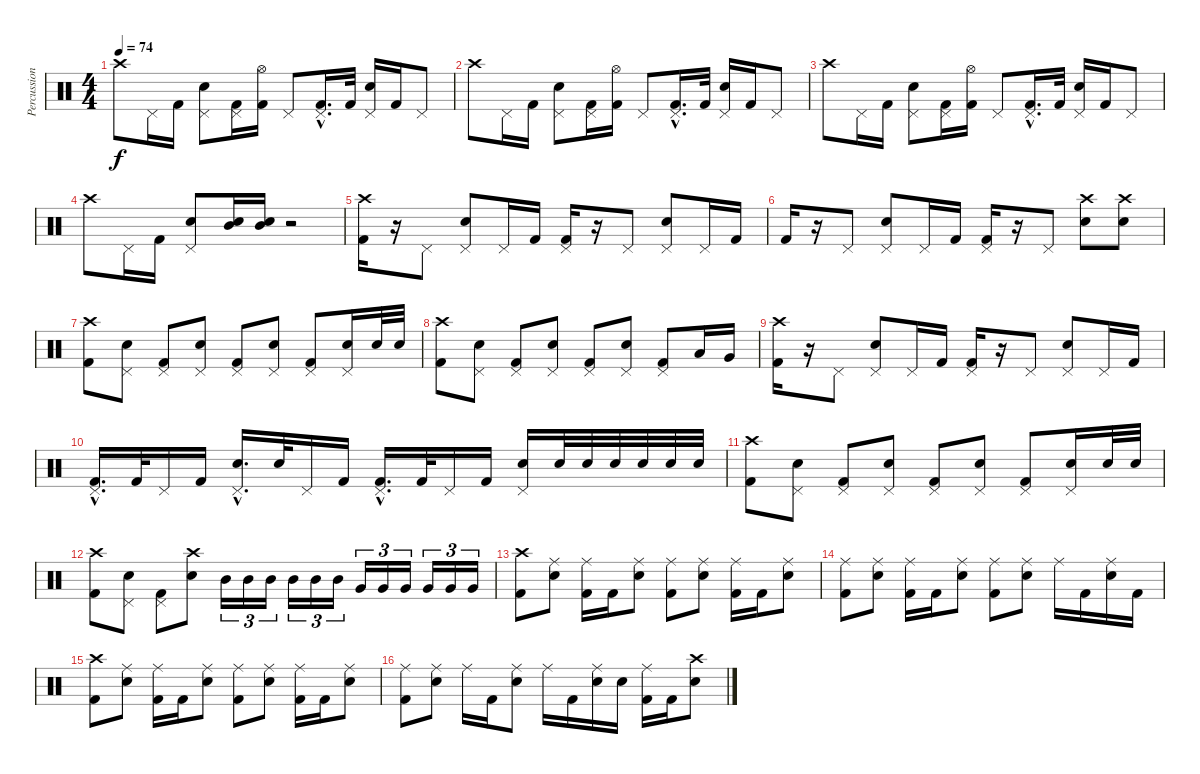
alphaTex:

\track ("Percussion" "Percussion") {instrument percussion}
\staff {score}
\articulation defaults
\ts (4 4)
\tempo 74
\clef neutral
\ks c "Crash high (hit)".8{dy f} "Pedal Hi-Hat (hit)".16 "Kick (hit) 2".16
("Pedal Hi-Hat (hit)" "Snare (hit) 2").8 ("Pedal Hi-Hat (hit)" "Kick (hit) 2").16 ("Hi-Hat (open)" "Kick (hit) 2").16 "Pedal Hi-Hat (hit)".8 ("Pedal Hi-Hat (hit)"{hac} "Kick (hit) 2"{hac}).16{d} "Kick (hit) 2".32 ("Pedal Hi-Hat (hit)" "Snare (hit) 2").16 "Kick (hit) 2".16 "Pedal Hi-Hat (hit)".8 |
"Crash high (hit)".8 "Pedal Hi-Hat (hit)".16 "Kick (hit) 2".16 ("Pedal Hi-Hat (hit)" "Snare (hit) 2").8 ("Pedal Hi-Hat (hit)" "Kick (hit) 2").16 ("Hi-Hat (open)" "Kick (hit) 2").16 "Pedal Hi-Hat (hit)".8 ("Pedal Hi-Hat (hit)"{hac} "Kick (hit) 2"{hac}).16{d} "Kick (hit) 2".32 ("Pedal Hi-Hat (hit)" "Snare (hit) 2").16 "Kick (hit) 2".16 "Pedal Hi-Hat (hit)".8 |
"Crash high (hit)".8 "Pedal Hi-Hat (hit)".16 "Kick (hit) 2".16 ("Pedal Hi-Hat (hit)" "Snare (hit) 2").8 ("Pedal Hi-Hat (hit)" "Kick (hit) 2").16 ("Hi-Hat (open)" "Kick (hit) 2").16 "Pedal Hi-Hat (hit)".8 ("Pedal Hi-Hat (hit)"{hac} "Kick (hit) 2"{hac}).16{d} "Kick (hit) 2".32 ("Pedal Hi-Hat (hit)" "Snare (hit) 2").16 "Kick (hit) 2".16 "Pedal Hi-Hat (hit)".8 |
"Crash high (hit)".8 "Pedal Hi-Hat (hit)".16 "Kick (hit) 2".16 ("Pedal Hi-Hat (hit)" "Snare (hit) 2").8 ("Mid Tom (hit)" "Snare (hit) 2").16 ("Mid Tom (hit)" "Snare (hit) 2").16 r.2 |
("Crash high (hit)" "Kick (hit) 2").16 r.16 "Pedal Hi-Hat (hit)".8 ("Pedal Hi-Hat (hit)" "Snare (hit) 2").8 "Pedal Hi-Hat (hit)".16 "Kick (hit) 2".16 ("Pedal Hi-Hat (hit)" "Kick (hit) 2").16 r.16 "Pedal Hi-Hat (hit)".8 ("Pedal Hi-Hat (hit)" "Snare (hit) 2").8 "Pedal Hi-Hat (hit)".16 "Kick (hit) 2".16 |
"Kick (hit) 2".16 r.16 "Pedal Hi-Hat (hit)".8 ("Pedal Hi-Hat (hit)" "Snare (hit) 2").8 "Pedal Hi-Hat (hit)".16 "Kick (hit) 2".16 ("Pedal Hi-Hat (hit)" "Kick (hit) 2").16 r.16 "Pedal Hi-Hat (hit)".8 ("Crash high (hit)" "Snare (hit) 2").8 ("Crash high (hit)" "Snare (hit) 2").8 |
("Crash high (hit)" "Kick (hit) 2").8 ("Pedal Hi-Hat (hit)" "Snare (hit) 2").8 ("Pedal Hi-Hat (hit)" "Kick (hit) 2").8 ("Pedal Hi-Hat (hit)" "Snare (hit) 2").8 ("Pedal Hi-Hat (hit)" "Kick (hit) 2").8 ("Pedal Hi-Hat (hit)" "Snare (hit) 2").8 ("Pedal Hi-Hat (hit)" "Kick (hit) 2").8 ("Pedal Hi-Hat (hit)" "Snare (hit) 2").16 "Snare (hit) 2".32 "Snare (hit) 2".32 |
("Crash high (hit)" "Kick (hit) 2").8 ("Pedal Hi-Hat (hit)" "Snare (hit) 2").8 ("Pedal Hi-Hat (hit)" "Kick (hit) 2").8 ("Pedal Hi-Hat (hit)" "Snare (hit) 2").8 ("Pedal Hi-Hat (hit)" "Kick (hit) 2").8 ("Pedal Hi-Hat (hit)" "Snare (hit) 2").8 ("Pedal Hi-Hat (hit)" "Kick (hit) 2").8 "Low Tom (hit)".16 "Very Low Tom (hit)".16 |
("Crash high (hit)" "Kick (hit) 2").16 r.16 "Pedal Hi-Hat (hit)".8 ("Pedal Hi-Hat (hit)" "Snare (hit) 2").8 "Pedal Hi-Hat (hit)".16 "Kick (hit) 2".16 ("Pedal Hi-Hat (hit)" "Kick (hit) 2").16 r.16 "Pedal Hi-Hat (hit)".8 ("Pedal Hi-Hat (hit)" "Snare (hit) 2").8 "Pedal Hi-Hat (hit)".16 "Kick (hit) 2".16 |
("Pedal Hi-Hat (hit)"{hac} "Kick (hit) 2"{hac}).16{d} "Kick (hit) 2".32 "Pedal Hi-Hat (hit)".16 "Kick (hit) 2".16 ("Pedal Hi-Hat (hit)"{hac} "Snare (hit) 2"{hac}).16{d} "Snare (hit) 2".32 "Pedal Hi-Hat (hit)".16 "Kick (hit) 2".16 ("Pedal Hi-Hat (hit)"{hac} "Kick (hit) 2"{hac}).16{d} "Kick (hit) 2".32 "Pedal Hi-Hat (hit)".16 "Kick (hit) 2".16 ("Pedal Hi-Hat (hit)" "Snare (hit) 2").16 "Snare (hit) 2".32 "Snare (hit) 2".32 "Snare (hit) 2".32 "Snare (hit) 2".32 "Snare (hit) 2".32 "Snare (hit) 2".32 |
("Crash high (hit)" "Kick (hit) 2").8 ("Pedal Hi-Hat (hit)" "Snare (hit) 2").8 ("Pedal Hi-Hat (hit)" "Kick (hit) 2").8 ("Pedal Hi-Hat (hit)" "Snare (hit) 2").8 ("Pedal Hi-Hat (hit)" "Kick (hit) 2").8 ("Pedal Hi-Hat (hit)" "Snare (hit) 2").8 ("Pedal Hi-Hat (hit)" "Kick (hit) 2").8 ("Pedal Hi-Hat (hit)" "Snare (hit) 2").16 "Snare (hit) 2".32 "Snare (hit) 2".32 |
("Crash high (hit)" "Kick (hit) 2").8 ("Pedal Hi-Hat (hit)" "Snare (hit) 2").8 ("Pedal Hi-Hat (hit)" "Kick (hit) 2").8 ("Crash high (hit)" "Snare (hit) 2").8 "Mid Tom (hit)".16{tu (3 2)} "Mid Tom (hit)".16{tu (3 2)} "Mid Tom (hit)".16{tu (3 2)} "Mid Tom (hit)".16{tu (3 2)} "Mid Tom (hit)".16{tu (3 2)} "Mid Tom (hit)".16{tu (3 2)} "Very Low Tom (hit)".16{tu (3 2)} "Very Low Tom (hit)".16{tu (3 2)} "Very Low Tom (hit)".16{tu (3 2)} "Very Low Tom (hit)".16{tu (3 2)} "Very Low Tom (hit)".16{tu (3 2)} "Very Low Tom (hit)".16{tu (3 2)} |
("Crash high (hit)" "Kick (hit) 2").8 ("Ride (middle)" "Snare (hit) 2").8 ("Ride (middle)" "Kick (hit) 2").16 "Kick (hit) 2".16 ("Ride (middle)" "Snare (hit) 2").8 ("Ride (middle)" "Kick (hit) 2").8 ("Ride (middle)" "Snare (hit) 2").8 ("Ride (middle)" "Kick (hit) 2").16 "Kick (hit) 2".16 ("Ride (middle)" "Snare (hit) 2").8 |
("Ride (middle)" "Kick (hit) 2").8 ("Ride (middle)" "Snare (hit) 2").8 ("Ride (middle)" "Kick (hit) 2").16 "Kick (hit) 2".16 ("Ride (middle)" "Snare (hit) 2").8 ("Ride (middle)" "Kick (hit) 2").8 ("Ride (middle)" "Snare (hit) 2").8 "Ride (middle)".16 "Kick (hit) 2".16 ("Ride (middle)" "Snare (hit) 2").16 "Kick (hit) 2".16 |
("Crash high (hit)" "Kick (hit) 2").8 ("Ride (middle)" "Snare (hit) 2").8 ("Ride (middle)" "Kick (hit) 2").16 "Kick (hit) 2".16 ("Ride (middle)" "Snare (hit) 2").8 ("Ride (middle)" "Kick (hit) 2").8 ("Ride (middle)" "Snare (hit) 2").8 ("Ride (middle)" "Kick (hit) 2").16 "Kick (hit) 2".16 ("Ride (middle)" "Snare (hit) 2").8 |
("Ride (middle)" "Kick (hit) 2").8 ("Ride (middle)" "Snare (hit) 2").8 "Ride (middle)".16 "Kick (hit) 2".16 ("Ride (middle)" "Snare (hit) 2").8 "Ride (middle)".16 "Kick (hit) 2".16 ("Ride (middle)" "Snare (hit) 2").16 "Snare (hit) 2".16 ("Ride (middle)" "Kick (hit) 2").16 "Kick (hit) 2".16 ("Crash high (hit)" "Snare (hit) 2").8
